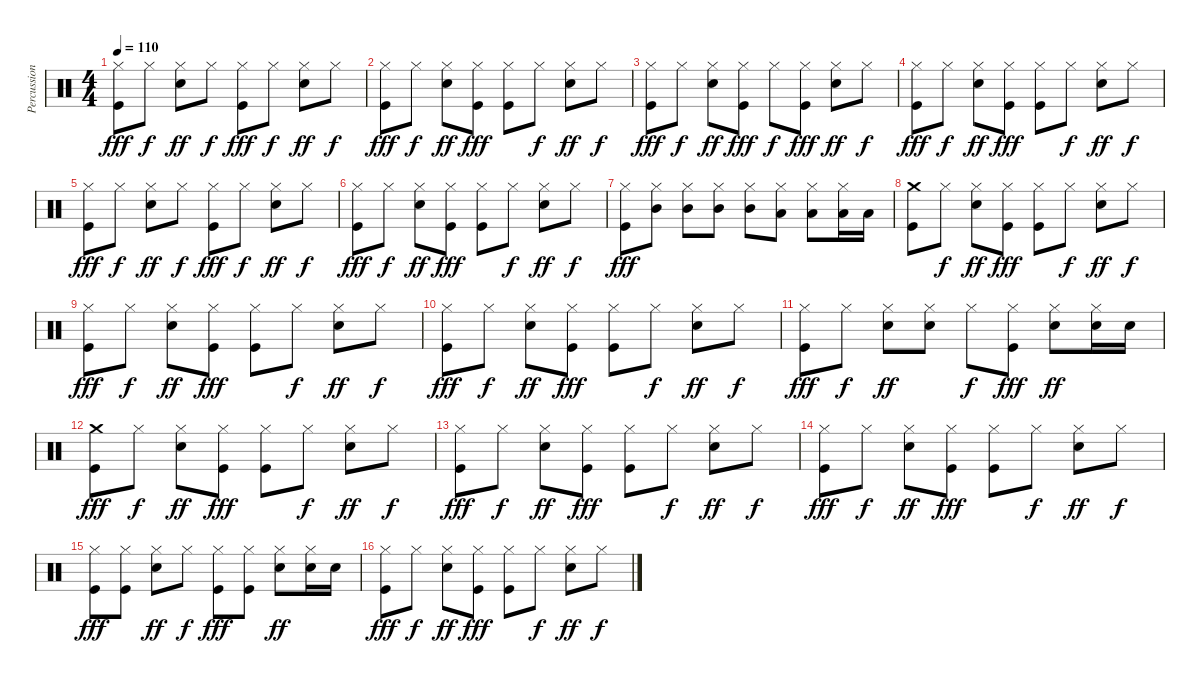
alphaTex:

\track ("Percussion" "Percussion") {instrument percussion}
\staff {score}
\articulation defaults
\ts (4 4)
\tempo 110
\clef neutral
\ks c
("Kick (hit)" "Hi-Hat (closed)").8{dy fff} "Hi-Hat (closed)".8{dy f} ("Snare (hit) 2" "Hi-Hat (closed)").8{dy ff} "Hi-Hat (closed)".8{dy f} ("Kick (hit)" "Hi-Hat (closed)").8{dy fff} "Hi-Hat (closed)".8{dy f} ("Snare (hit) 2" "Hi-Hat (closed)").8{dy ff} "Hi-Hat (closed)".8{dy f} |
("Kick (hit)" "Hi-Hat (closed)").8{dy fff} "Hi-Hat (closed)".8{dy f} ("Snare (hit) 2" "Hi-Hat (closed)").8{dy ff} ("Kick (hit)" "Hi-Hat (closed)").8{dy fff} ("Kick (hit)" "Hi-Hat (closed)").8 "Hi-Hat (closed)".8{dy f} ("Snare (hit) 2" "Hi-Hat (closed)").8{dy ff} "Hi-Hat (closed)".8{dy f} |
("Kick (hit)" "Hi-Hat (closed)").8{dy fff} "Hi-Hat (closed)".8{dy f} ("Snare (hit) 2" "Hi-Hat (closed)").8{dy ff} ("Kick (hit)" "Hi-Hat (closed)").8{dy fff} "Hi-Hat (closed)".8{dy f} ("Kick (hit)" "Hi-Hat (closed)").8{dy fff} ("Snare (hit) 2" "Hi-Hat (closed)").8{dy ff} "Hi-Hat (closed)".8{dy f} |
("Kick (hit)" "Hi-Hat (closed)").8{dy fff} "Hi-Hat (closed)".8{dy f} ("Snare (hit) 2" "Hi-Hat (closed)").8{dy ff} ("Kick (hit)" "Hi-Hat (closed)").8{dy fff} ("Kick (hit)" "Hi-Hat (closed)").8 "Hi-Hat (closed)".8{dy f} ("Snare (hit) 2" "Hi-Hat (closed)").8{dy ff} "Hi-Hat (closed)".8{dy f} |
("Kick (hit)" "Hi-Hat (closed)").8{dy fff} "Hi-Hat (closed)".8{dy f} ("Snare (hit) 2" "Hi-Hat (closed)").8{dy ff} "Hi-Hat (closed)".8{dy f} ("Kick (hit)" "Hi-Hat (closed)").8{dy fff} "Hi-Hat (closed)".8{dy f} ("Snare (hit) 2" "Hi-Hat (closed)").8{dy ff} "Hi-Hat (closed)".8{dy f} |
("Kick (hit)" "Hi-Hat (closed)").8{dy fff} "Hi-Hat (closed)".8{dy f} ("Snare (hit) 2" "Hi-Hat (closed)").8{dy ff} ("Kick (hit)" "Hi-Hat (closed)").8{dy fff} ("Kick (hit)" "Hi-Hat (closed)").8 "Hi-Hat (closed)".8{dy f} ("Snare (hit) 2" "Hi-Hat (closed)").8{dy ff} "Hi-Hat (closed)".8{dy f} |
("Kick (hit)" "Hi-Hat (closed)").8{dy fff} ("Mid Tom (hit)" "Hi-Hat (closed)").8 ("Mid Tom (hit)" "Hi-Hat (closed)").8 ("Mid Tom (hit)" "Hi-Hat (closed)").8 ("Mid Tom (hit)" "Hi-Hat (closed)").8 ("Low Tom (hit)" "Hi-Hat (closed)").8 ("Low Tom (hit)" "Hi-Hat (closed)").8 ("Low Tom (hit)" "Hi-Hat (closed)").16 "Low Tom (hit)".16 |
("Kick (hit)" "Crash medium (hit)").8 "Hi-Hat (closed)".8{dy f} ("Snare (hit) 2" "Hi-Hat (closed)").8{dy ff} ("Kick (hit)" "Hi-Hat (closed)").8{dy fff} ("Kick (hit)" "Hi-Hat (closed)").8 "Hi-Hat (closed)".8{dy f} ("Snare (hit) 2" "Hi-Hat (closed)").8{dy ff} "Hi-Hat (closed)".8{dy f} |
("Kick (hit)" "Hi-Hat (closed)").8{dy fff} "Hi-Hat (closed)".8{dy f} ("Snare (hit) 2" "Hi-Hat (closed)").8{dy ff} ("Kick (hit)" "Hi-Hat (closed)").8{dy fff} ("Kick (hit)" "Hi-Hat (closed)").8 "Hi-Hat (closed)".8{dy f} ("Snare (hit) 2" "Hi-Hat (closed)").8{dy ff} "Hi-Hat (closed)".8{dy f} |
("Kick (hit)" "Hi-Hat (closed)").8{dy fff} "Hi-Hat (closed)".8{dy f} ("Snare (hit) 2" "Hi-Hat (closed)").8{dy ff} ("Kick (hit)" "Hi-Hat (closed)").8{dy fff} ("Kick (hit)" "Hi-Hat (closed)").8 "Hi-Hat (closed)".8{dy f} ("Snare (hit) 2" "Hi-Hat (closed)").8{dy ff} "Hi-Hat (closed)".8{dy f} |
("Kick (hit)" "Hi-Hat (closed)").8{dy fff} "Hi-Hat (closed)".8{dy f} ("Snare (hit) 2" "Hi-Hat (closed)").8{dy ff} ("Snare (hit) 2" "Hi-Hat (closed)").8 "Hi-Hat (closed)".8{dy f} ("Kick (hit)" "Hi-Hat (closed)").8{dy fff} ("Snare (hit) 2" "Hi-Hat (closed)").8{dy ff} ("Snare (hit) 2" "Hi-Hat (closed)").16 "Snare (hit) 2".16 |
("Kick (hit)" "Crash medium (hit)").8{dy fff} "Hi-Hat (closed)".8{dy f} ("Snare (hit) 2" "Hi-Hat (closed)").8{dy ff} ("Kick (hit)" "Hi-Hat (closed)").8{dy fff} ("Kick (hit)" "Hi-Hat (closed)").8 "Hi-Hat (closed)".8{dy f} ("Snare (hit) 2" "Hi-Hat (closed)").8{dy ff} "Hi-Hat (closed)".8{dy f} |
("Kick (hit)" "Hi-Hat (closed)").8{dy fff} "Hi-Hat (closed)".8{dy f} ("Snare (hit) 2" "Hi-Hat (closed)").8{dy ff} ("Kick (hit)" "Hi-Hat (closed)").8{dy fff} ("Kick (hit)" "Hi-Hat (closed)").8 "Hi-Hat (closed)".8{dy f} ("Snare (hit) 2" "Hi-Hat (closed)").8{dy ff} "Hi-Hat (closed)".8{dy f} |
("Kick (hit)" "Hi-Hat (closed)").8{dy fff} "Hi-Hat (closed)".8{dy f} ("Snare (hit) 2" "Hi-Hat (closed)").8{dy ff} ("Kick (hit)" "Hi-Hat (closed)").8{dy fff} ("Kick (hit)" "Hi-Hat (closed)").8 "Hi-Hat (closed)".8{dy f} ("Snare (hit) 2" "Hi-Hat (closed)").8{dy ff} "Hi-Hat (closed)".8{dy f} |
("Kick (hit)" "Hi-Hat (closed)").8{dy fff} ("Kick (hit)" "Hi-Hat (closed)").8 ("Snare (hit) 2" "Hi-Hat (closed)").8{dy ff} "Hi-Hat (closed)".8{dy f} ("Kick (hit)" "Hi-Hat (closed)").8{dy fff} ("Kick (hit)" "Hi-Hat (closed)").8 ("Snare (hit) 2" "Hi-Hat (closed)").8{dy ff} ("Snare (hit) 2" "Hi-Hat (closed)").16 "Snare (hit) 2".16 |
("Kick (hit)" "Hi-Hat (closed)").8{dy fff} "Hi-Hat (closed)".8{dy f} ("Snare (hit) 2" "Hi-Hat (closed)").8{dy ff} ("Kick (hit)" "Hi-Hat (closed)").8{dy fff} ("Kick (hit)" "Hi-Hat (closed)").8 "Hi-Hat (closed)".8{dy f} ("Snare (hit) 2" "Hi-Hat (closed)").8{dy ff} "Hi-Hat (closed)".8{dy f}
